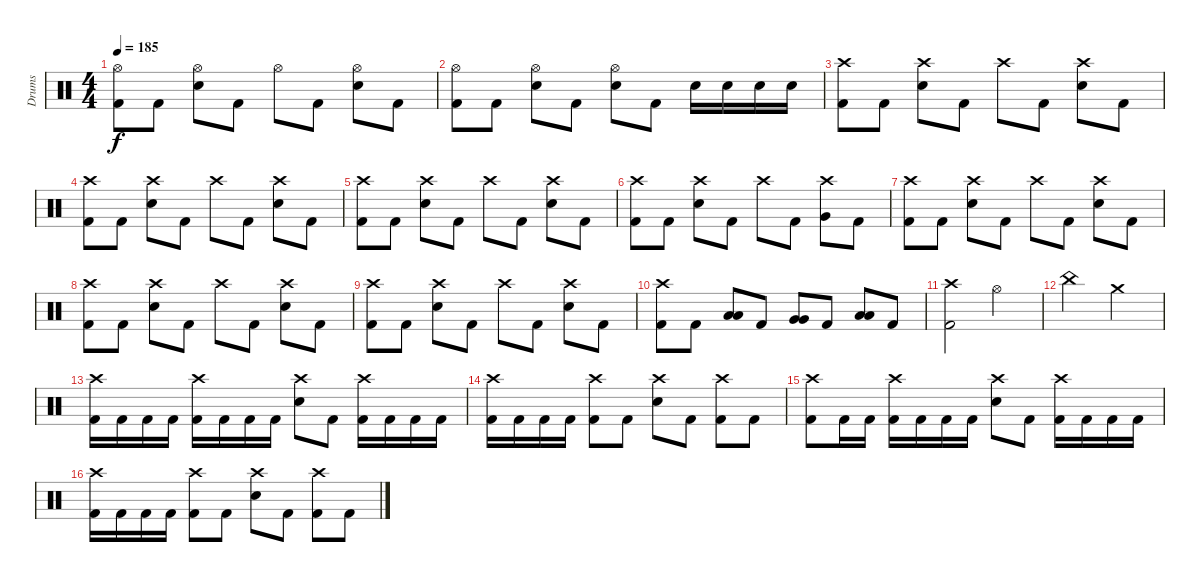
\track ("Drums" "Drums") {instrument percussion}
\staff {score}
\articulation defaults
\ts (4 4)
\tempo 185
\clef neutral
\ks c
("Hi-Hat (open)" "Kick (hit) 2").8{dy f} "Kick (hit) 2".8 ("Hi-Hat (open)" "Snare (hit) 2").8 "Kick (hit) 2".8 "Hi-Hat (open)".8 "Kick (hit) 2".8 ("Hi-Hat (open)" "Snare (hit) 2").8 "Kick (hit) 2".8 |
("Hi-Hat (open)" "Kick (hit) 2").8 "Kick (hit) 2".8 ("Hi-Hat (open)" "Snare (hit) 2").8 "Kick (hit) 2".8 ("Hi-Hat (open)" "Snare (hit) 2").8 "Kick (hit) 2".8 "Snare (hit) 2".16 "Snare (hit) 2".16 "Snare (hit) 2".16 "Snare (hit) 2".16 |
("Crash high (hit)" "Kick (hit) 2").8 "Kick (hit) 2".8 ("Crash high (hit)" "Snare (hit) 2").8 "Kick (hit) 2".8 "Crash high (hit)".8 "Kick (hit) 2".8 ("Crash high (hit)" "Snare (hit) 2").8 "Kick (hit) 2".8 |
("Crash high (hit)" "Kick (hit) 2").8 "Kick (hit) 2".8 ("Crash high (hit)" "Snare (hit) 2").8 "Kick (hit) 2".8 "Crash high (hit)".8 "Kick (hit) 2".8 ("Crash high (hit)" "Snare (hit) 2").8 "Kick (hit) 2".8 |
("Crash high (hit)" "Kick (hit) 2").8 "Kick (hit) 2".8 ("Crash high (hit)" "Snare (hit) 2").8 "Kick (hit) 2".8 "Crash high (hit)".8 "Kick (hit) 2".8 ("Crash high (hit)" "Snare (hit) 2").8 "Kick (hit) 2".8 |
("Crash high (hit)" "Kick (hit) 2").8 "Kick (hit) 2".8 ("Crash high (hit)" "Snare (hit) 2").8 "Kick (hit) 2".8 "Crash high (hit)".8 "Kick (hit) 2".8 ("Crash high (hit)" "Very Low Tom (hit)").8 "Kick (hit) 2".8 |
("Crash high (hit)" "Kick (hit) 2").8 "Kick (hit) 2".8 ("Crash high (hit)" "Snare (hit) 2").8 "Kick (hit) 2".8 "Crash high (hit)".8 "Kick (hit) 2".8 ("Crash high (hit)" "Snare (hit) 2").8 "Kick (hit) 2".8 |
("Crash high (hit)" "Kick (hit) 2").8 "Kick (hit) 2".8 ("Crash high (hit)" "Snare (hit) 2").8 "Kick (hit) 2".8 "Crash high (hit)".8 "Kick (hit) 2".8 ("Crash high (hit)" "Snare (hit) 2").8 "Kick (hit) 2".8 |
("Crash high (hit)" "Kick (hit) 2").8 "Kick (hit) 2".8 ("Crash high (hit)" "Snare (hit) 2").8 "Kick (hit) 2".8 "Crash high (hit)".8 "Kick (hit) 2".8 ("Crash high (hit)" "Snare (hit) 2").8 "Kick (hit) 2".8 |
("Crash high (hit)" "Kick (hit) 2").8 "Kick (hit) 2".8 ("Low Tom (hit)" "Low Tom (hit)").8 "Kick (hit) 2".8 ("Very Low Tom (hit)" "Very Low Tom (hit)").8 "Kick (hit) 2".8 ("Low Floor Tom (hit)" "Low Floor Tom (hit)").8 "Kick (hit) 2".8 |
("Crash high (hit)" "Kick (hit) 2").2 "Hi-Hat (open)".2 |
"China (hit)".2 "Crash medium (hit)".2 |
("Crash high (hit)" "Kick (hit) 2").16 "Kick (hit) 2".16 "Kick (hit) 2".16 "Kick (hit) 2".16 ("Crash high (hit)" "Kick (hit) 2").16 "Kick (hit) 2".16 "Kick (hit) 2".16 "Kick (hit) 2".16 ("Crash high (hit)" "Snare (hit) 2").8 "Kick (hit) 2".8 ("Crash high (hit)" "Kick (hit) 2").16 "Kick (hit) 2".16 "Kick (hit) 2".16 "Kick (hit) 2".16 |
("Crash high (hit)" "Kick (hit) 2").16 "Kick (hit) 2".16 "Kick (hit) 2".16 "Kick (hit) 2".16 ("Crash high (hit)" "Kick (hit) 2").8 "Kick (hit) 2".8 ("Crash high (hit)" "Snare (hit) 2").8 "Kick (hit) 2".8 ("Crash high (hit)" "Kick (hit) 2").8 "Kick (hit) 2".8 |
("Crash high (hit)" "Kick (hit) 2").8 "Kick (hit) 2".16 "Kick (hit) 2".16 ("Crash high (hit)" "Kick (hit) 2").16 "Kick (hit) 2".16 "Kick (hit) 2".16 "Kick (hit) 2".16 ("Crash high (hit)" "Snare (hit) 2").8 "Kick (hit) 2".8 ("Crash high (hit)" "Kick (hit) 2").16 "Kick (hit) 2".16 "Kick (hit) 2".16 "Kick (hit) 2".16 |
("Crash high (hit)" "Kick (hit) 2").16 "Kick (hit) 2".16 "Kick (hit) 2".16 "Kick (hit) 2".16 ("Crash high (hit)" "Kick (hit) 2").8 "Kick (hit) 2".8 ("Crash high (hit)" "Snare (hit) 2").8 "Kick (hit) 2".8 ("Crash high (hit)" "Kick (hit) 2").8 "Kick (hit) 2".8
